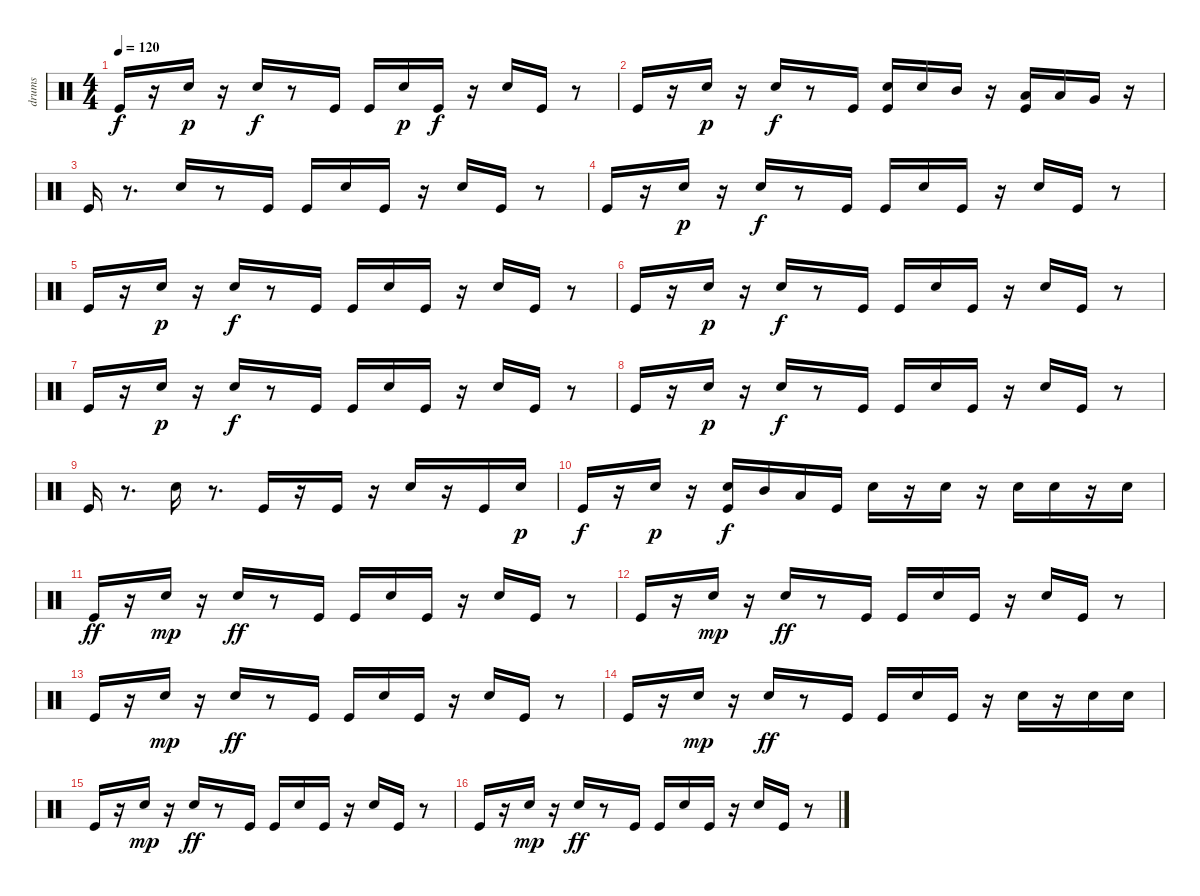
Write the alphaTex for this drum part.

\track ("drums" "drums") {instrument percussion}
\staff {score}
\articulation defaults
\ts (4 4)
\tempo 120
\clef neutral
\ks c "Kick (hit)".16{dy f}
r.16 "Electric Snare (hit)".16{dy p} r.16 "Electric Snare (hit)".16{dy f} r.8 "Kick (hit)".16 "Kick (hit)".16 "Electric Snare (hit)".16{dy p} "Kick (hit)".16{dy f} r.16 "Electric Snare (hit)".16 "Kick (hit)".16 r.8 |
"Kick (hit)".16 r.16 "Electric Snare (hit)".16{dy p} r.16 "Electric Snare (hit)".16{dy f} r.8 "Kick (hit)".16 ("Electric Snare (hit)" "Kick (hit)").16 "Electric Snare (hit)".16 "Mid Tom (hit)".16 r.16 ("Low Tom (hit)" "Kick (hit)").16 "Low Tom (hit)".16 "Very Low Tom (hit)".16 r.16 |
"Kick (hit)".16 r.8{d} "Electric Snare (hit)".16 r.8 "Kick (hit)".16 "Kick (hit)".16 "Electric Snare (hit)".16 "Kick (hit)".16 r.16 "Electric Snare (hit)".16 "Kick (hit)".16 r.8 |
"Kick (hit)".16 r.16 "Electric Snare (hit)".16{dy p} r.16 "Electric Snare (hit)".16{dy f} r.8 "Kick (hit)".16 "Kick (hit)".16 "Electric Snare (hit)".16 "Kick (hit)".16 r.16 "Electric Snare (hit)".16 "Kick (hit)".16 r.8 |
"Kick (hit)".16 r.16 "Electric Snare (hit)".16{dy p} r.16 "Electric Snare (hit)".16{dy f} r.8 "Kick (hit)".16 "Kick (hit)".16 "Electric Snare (hit)".16 "Kick (hit)".16 r.16 "Electric Snare (hit)".16 "Kick (hit)".16 r.8 |
"Kick (hit)".16 r.16 "Electric Snare (hit)".16{dy p} r.16 "Electric Snare (hit)".16{dy f} r.8 "Kick (hit)".16 "Kick (hit)".16 "Electric Snare (hit)".16 "Kick (hit)".16 r.16 "Electric Snare (hit)".16 "Kick (hit)".16 r.8 |
"Kick (hit)".16 r.16 "Electric Snare (hit)".16{dy p} r.16 "Electric Snare (hit)".16{dy f} r.8 "Kick (hit)".16 "Kick (hit)".16 "Electric Snare (hit)".16 "Kick (hit)".16 r.16 "Electric Snare (hit)".16 "Kick (hit)".16 r.8 |
"Kick (hit)".16 r.16 "Electric Snare (hit)".16{dy p} r.16 "Electric Snare (hit)".16{dy f} r.8 "Kick (hit)".16 "Kick (hit)".16 "Electric Snare (hit)".16 "Kick (hit)".16 r.16 "Electric Snare (hit)".16 "Kick (hit)".16 r.8 |
"Kick (hit)".16 r.8{d} "Electric Snare (hit)".16 r.8{d} "Kick (hit)".16 r.16 "Kick (hit)".16 r.16 "Electric Snare (hit)".16 r.16 "Kick (hit)".16 "Electric Snare (hit)".16{dy p} |
"Kick (hit)".16{dy f} r.16 "Electric Snare (hit)".16{dy p} r.16 ("Kick (hit)" "Electric Snare (hit)").16{dy f} "Mid Tom (hit)".16 "Low Tom (hit)".16 "Kick (hit)".16 "Electric Snare (hit)".16 r.16 "Electric Snare (hit)".16 r.16 "Electric Snare (hit)".16 "Electric Snare (hit)".16 r.16 "Electric Snare (hit)".16 |
"Kick (hit)".16{dy ff} r.16 "Electric Snare (hit)".16{dy mp} r.16 "Electric Snare (hit)".16{dy ff} r.8 "Kick (hit)".16 "Kick (hit)".16 "Electric Snare (hit)".16 "Kick (hit)".16 r.16 "Electric Snare (hit)".16 "Kick (hit)".16 r.8 |
"Kick (hit)".16 r.16 "Electric Snare (hit)".16{dy mp} r.16 "Electric Snare (hit)".16{dy ff} r.8 "Kick (hit)".16 "Kick (hit)".16 "Electric Snare (hit)".16 "Kick (hit)".16 r.16 "Electric Snare (hit)".16 "Kick (hit)".16 r.8 |
"Kick (hit)".16 r.16 "Electric Snare (hit)".16{dy mp} r.16 "Electric Snare (hit)".16{dy ff} r.8 "Kick (hit)".16 "Kick (hit)".16 "Electric Snare (hit)".16 "Kick (hit)".16 r.16 "Electric Snare (hit)".16 "Kick (hit)".16 r.8 |
"Kick (hit)".16 r.16 "Electric Snare (hit)".16{dy mp} r.16 "Electric Snare (hit)".16{dy ff} r.8 "Kick (hit)".16 "Kick (hit)".16 "Electric Snare (hit)".16 "Kick (hit)".16 r.16 "Electric Snare (hit)".16 r.16 "Electric Snare (hit)".16 "Electric Snare (hit)".16 |
"Kick (hit)".16 r.16 "Electric Snare (hit)".16{dy mp} r.16 "Electric Snare (hit)".16{dy ff} r.8 "Kick (hit)".16 "Kick (hit)".16 "Electric Snare (hit)".16 "Kick (hit)".16 r.16 "Electric Snare (hit)".16 "Kick (hit)".16 r.8 |
"Kick (hit)".16 r.16 "Electric Snare (hit)".16{dy mp} r.16 "Electric Snare (hit)".16{dy ff} r.8 "Kick (hit)".16 "Kick (hit)".16 "Electric Snare (hit)".16 "Kick (hit)".16 r.16 "Electric Snare (hit)".16 "Kick (hit)".16 r.8
